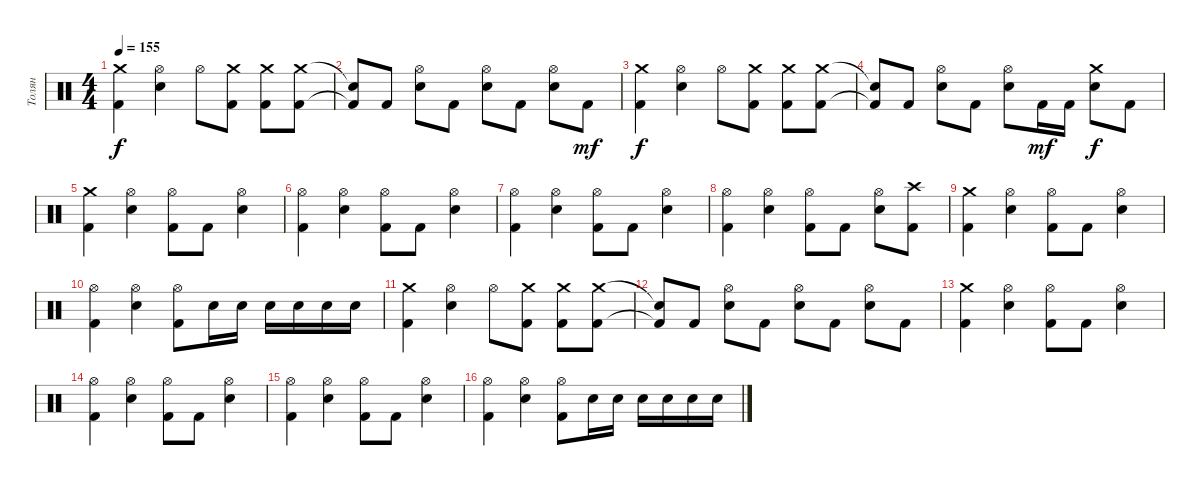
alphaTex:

\track ("Толян" "Толян") {instrument percussion}
\staff {score}
\articulation defaults
\ts (4 4)
\tempo 155
\clef neutral
\ks c
("Kick (hit) 2" "Crash medium (hit)").4{dy f} ("Electric Snare (hit)" "Hi-Hat (open)").4 "Hi-Hat (open)".8 ("Kick (hit) 2" "Crash medium (hit)").8 ("Kick (hit) 2" "Crash medium (hit)").8 ("Kick (hit) 2" "Crash medium (hit)").8 |
("Kick (hit) 2"{t} "Snare (hit)"{t}).8 "Kick (hit) 2".8 ("Electric Snare (hit)" "Hi-Hat (open)").8 "Kick (hit) 2".8 ("Electric Snare (hit)" "Hi-Hat (open)").8 "Kick (hit) 2".8 ("Electric Snare (hit)" "Hi-Hat (open)").8 "Kick (hit) 2".8{dy mf} |
("Kick (hit) 2" "Crash medium (hit)").4{dy f} ("Electric Snare (hit)" "Hi-Hat (open)").4 "Hi-Hat (open)".8 ("Kick (hit) 2" "Crash medium (hit)").8 ("Kick (hit) 2" "Crash medium (hit)").8 ("Kick (hit) 2" "Crash medium (hit)").8 |
("Kick (hit) 2"{t} "Snare (hit)"{t}).8 "Kick (hit) 2".8 ("Electric Snare (hit)" "Hi-Hat (open)").8 "Kick (hit) 2".8 ("Electric Snare (hit)" "Hi-Hat (open)").8 "Kick (hit) 2".16{dy mf} "Kick (hit) 2".16 ("Electric Snare (hit)" "Crash medium (hit)").8{dy f} "Kick (hit) 2".8 |
("Kick (hit) 2" "Crash medium (hit)").4 ("Electric Snare (hit)" "Hi-Hat (open)").4 ("Kick (hit) 2" "Hi-Hat (open)").8 "Kick (hit) 2".8 ("Electric Snare (hit)" "Hi-Hat (open)").4 |
("Kick (hit) 2" "Hi-Hat (open)").4 ("Electric Snare (hit)" "Hi-Hat (open)").4 ("Kick (hit) 2" "Hi-Hat (open)").8 "Kick (hit) 2".8 ("Electric Snare (hit)" "Hi-Hat (open)").4 |
("Kick (hit) 2" "Hi-Hat (open)").4 ("Electric Snare (hit)" "Hi-Hat (open)").4 ("Kick (hit) 2" "Hi-Hat (open)").8 "Kick (hit) 2".8 ("Electric Snare (hit)" "Hi-Hat (open)").4 |
("Kick (hit) 2" "Hi-Hat (open)").4 ("Electric Snare (hit)" "Hi-Hat (open)").4 ("Kick (hit) 2" "Hi-Hat (open)").8 "Kick (hit) 2".8 ("Electric Snare (hit)" "Hi-Hat (open)").8 ("Kick (hit) 2" "Crash high (hit)").8 |
("Kick (hit) 2" "Crash medium (hit)").4 ("Electric Snare (hit)" "Hi-Hat (open)").4 ("Kick (hit) 2" "Hi-Hat (open)").8 "Kick (hit) 2".8 ("Electric Snare (hit)" "Hi-Hat (open)").4 |
("Kick (hit) 2" "Hi-Hat (open)").4 ("Electric Snare (hit)" "Hi-Hat (open)").4 ("Kick (hit) 2" "Hi-Hat (open)").8 "Electric Snare (hit)".16 "Electric Snare (hit)".16 "Electric Snare (hit)".16 "Electric Snare (hit)".16 "Electric Snare (hit)".16 "Electric Snare (hit)".16 |
("Kick (hit) 2" "Crash medium (hit)").4 ("Electric Snare (hit)" "Hi-Hat (open)").4 "Hi-Hat (open)".8 ("Kick (hit) 2" "Crash medium (hit)").8 ("Kick (hit) 2" "Crash medium (hit)").8 ("Kick (hit) 2" "Crash medium (hit)").8 |
("Kick (hit) 2"{t} "Snare (hit)"{t}).8 "Kick (hit) 2".8 ("Electric Snare (hit)" "Hi-Hat (open)").8 "Kick (hit) 2".8 ("Electric Snare (hit)" "Hi-Hat (open)").8 "Kick (hit) 2".8 ("Electric Snare (hit)" "Hi-Hat (open)").8 "Kick (hit) 2".8 |
("Kick (hit) 2" "Crash medium (hit)").4 ("Electric Snare (hit)" "Hi-Hat (open)").4 ("Kick (hit) 2" "Hi-Hat (open)").8 "Kick (hit) 2".8 ("Electric Snare (hit)" "Hi-Hat (open)").4 |
("Kick (hit) 2" "Hi-Hat (open)").4 ("Electric Snare (hit)" "Hi-Hat (open)").4 ("Kick (hit) 2" "Hi-Hat (open)").8 "Kick (hit) 2".8 ("Electric Snare (hit)" "Hi-Hat (open)").4 |
("Kick (hit) 2" "Hi-Hat (open)").4 ("Electric Snare (hit)" "Hi-Hat (open)").4 ("Kick (hit) 2" "Hi-Hat (open)").8 "Kick (hit) 2".8 ("Electric Snare (hit)" "Hi-Hat (open)").4 |
("Kick (hit) 2" "Hi-Hat (open)").4 ("Electric Snare (hit)" "Hi-Hat (open)").4 ("Kick (hit) 2" "Hi-Hat (open)").8 "Electric Snare (hit)".16 "Electric Snare (hit)".16 "Electric Snare (hit)".16 "Electric Snare (hit)".16 "Electric Snare (hit)".16 "Electric Snare (hit)".16
